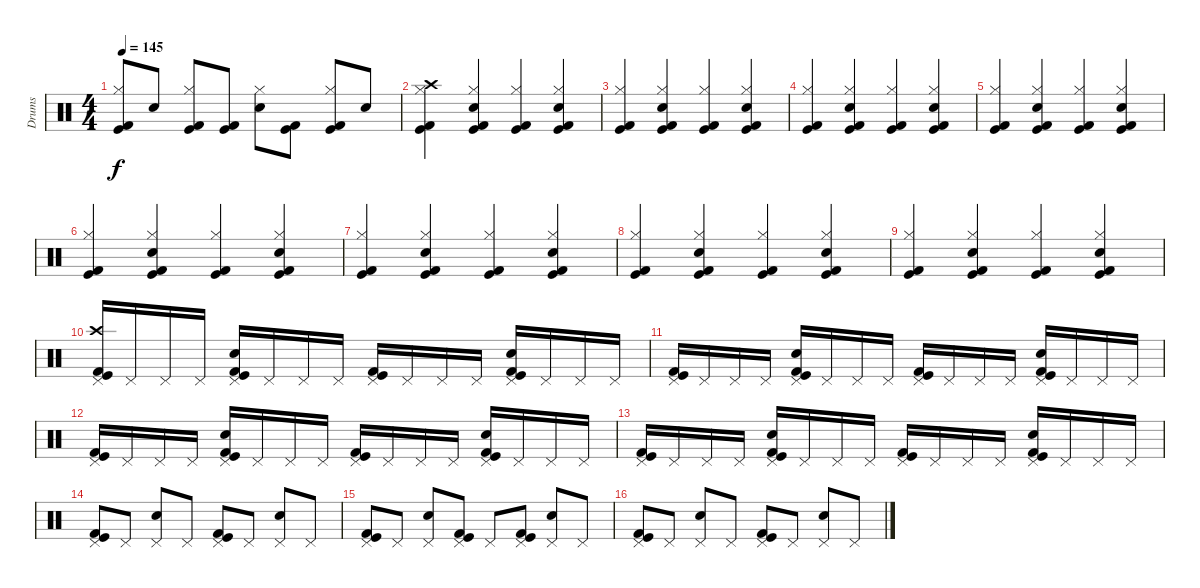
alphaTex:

\track ("Drums" "Drums") {instrument percussion}
\staff {score}
\articulation defaults
\ts (4 4)
\tempo 145
\clef neutral
\ks c
("Kick (hit) 2" "Hi-Hat (closed)" "Kick (hit)").8{dy f} "Electric Snare (hit)".8 ("Kick (hit) 2" "Hi-Hat (closed)" "Kick (hit)").8 ("Kick (hit) 2" "Kick (hit)").8 ("Hi-Hat (closed)" "Electric Snare (hit)").8 ("Kick (hit) 2" "Kick (hit)").8 ("Hi-Hat (closed)" "Kick (hit) 2" "Kick (hit)").8 "Electric Snare (hit)".8 |
("Crash high (hit)" "Hi-Hat (closed)" "Kick (hit) 2" "Kick (hit)").4 ("Hi-Hat (closed)" "Electric Snare (hit)" "Kick (hit) 2" "Kick (hit)").4 ("Hi-Hat (closed)" "Kick (hit) 2" "Kick (hit)").4 ("Electric Snare (hit)" "Hi-Hat (closed)" "Kick (hit) 2" "Kick (hit)").4 |
("Kick (hit) 2" "Hi-Hat (closed)" "Kick (hit)").4 ("Electric Snare (hit)" "Hi-Hat (closed)" "Kick (hit) 2" "Kick (hit)").4 ("Hi-Hat (closed)" "Kick (hit) 2" "Kick (hit)").4 ("Hi-Hat (closed)" "Electric Snare (hit)" "Kick (hit) 2" "Kick (hit)").4 |
("Hi-Hat (closed)" "Kick (hit) 2" "Kick (hit)").4 ("Hi-Hat (closed)" "Electric Snare (hit)" "Kick (hit) 2" "Kick (hit)").4 ("Hi-Hat (closed)" "Kick (hit) 2" "Kick (hit)").4 ("Electric Snare (hit)" "Hi-Hat (closed)" "Kick (hit) 2" "Kick (hit)").4 |
("Kick (hit) 2" "Hi-Hat (closed)" "Kick (hit)").4 ("Electric Snare (hit)" "Hi-Hat (closed)" "Kick (hit) 2" "Kick (hit)").4 ("Hi-Hat (closed)" "Kick (hit) 2" "Kick (hit)").4 ("Hi-Hat (closed)" "Electric Snare (hit)" "Kick (hit) 2" "Kick (hit)").4 |
("Hi-Hat (closed)" "Kick (hit) 2" "Kick (hit)").4 ("Hi-Hat (closed)" "Electric Snare (hit)" "Kick (hit) 2" "Kick (hit)").4 ("Hi-Hat (closed)" "Kick (hit) 2" "Kick (hit)").4 ("Electric Snare (hit)" "Hi-Hat (closed)" "Kick (hit) 2" "Kick (hit)").4 |
("Kick (hit) 2" "Hi-Hat (closed)" "Kick (hit)").4 ("Electric Snare (hit)" "Hi-Hat (closed)" "Kick (hit) 2" "Kick (hit)").4 ("Hi-Hat (closed)" "Kick (hit) 2" "Kick (hit)").4 ("Hi-Hat (closed)" "Electric Snare (hit)" "Kick (hit) 2" "Kick (hit)").4 |
("Hi-Hat (closed)" "Kick (hit) 2" "Kick (hit)").4 ("Hi-Hat (closed)" "Electric Snare (hit)" "Kick (hit) 2" "Kick (hit)").4 ("Hi-Hat (closed)" "Kick (hit) 2" "Kick (hit)").4 ("Electric Snare (hit)" "Hi-Hat (closed)" "Kick (hit) 2" "Kick (hit)").4 |
("Kick (hit) 2" "Hi-Hat (closed)" "Kick (hit)").4 ("Electric Snare (hit)" "Hi-Hat (closed)" "Kick (hit) 2" "Kick (hit)").4 ("Hi-Hat (closed)" "Kick (hit) 2" "Kick (hit)").4 ("Hi-Hat (closed)" "Electric Snare (hit)" "Kick (hit) 2" "Kick (hit)").4 |
("Crash high (hit)" "Kick (hit) 2" "Pedal Hi-Hat (hit)" "Kick (hit)").16 "Pedal Hi-Hat (hit)".16 "Pedal Hi-Hat (hit)".16 "Pedal Hi-Hat (hit)".16 ("Pedal Hi-Hat (hit)" "Electric Snare (hit)" "Kick (hit) 2" "Kick (hit)").16 "Pedal Hi-Hat (hit)".16 "Pedal Hi-Hat (hit)".16 "Pedal Hi-Hat (hit)".16 ("Pedal Hi-Hat (hit)" "Kick (hit) 2" "Kick (hit)").16 "Pedal Hi-Hat (hit)".16 "Pedal Hi-Hat (hit)".16 "Pedal Hi-Hat (hit)".16 ("Electric Snare (hit)" "Pedal Hi-Hat (hit)" "Kick (hit) 2" "Kick (hit)").16 "Pedal Hi-Hat (hit)".16 "Pedal Hi-Hat (hit)".16 "Pedal Hi-Hat (hit)".16 |
("Kick (hit) 2" "Pedal Hi-Hat (hit)" "Kick (hit)").16 "Pedal Hi-Hat (hit)".16 "Pedal Hi-Hat (hit)".16 "Pedal Hi-Hat (hit)".16 ("Pedal Hi-Hat (hit)" "Electric Snare (hit)" "Kick (hit) 2" "Kick (hit)").16 "Pedal Hi-Hat (hit)".16 "Pedal Hi-Hat (hit)".16 "Pedal Hi-Hat (hit)".16 ("Pedal Hi-Hat (hit)" "Kick (hit) 2" "Kick (hit)").16 "Pedal Hi-Hat (hit)".16 "Pedal Hi-Hat (hit)".16 "Pedal Hi-Hat (hit)".16 ("Electric Snare (hit)" "Pedal Hi-Hat (hit)" "Kick (hit) 2" "Kick (hit)").16 "Pedal Hi-Hat (hit)".16 "Pedal Hi-Hat (hit)".16 "Pedal Hi-Hat (hit)".16 |
("Kick (hit) 2" "Pedal Hi-Hat (hit)" "Kick (hit)").16 "Pedal Hi-Hat (hit)".16 "Pedal Hi-Hat (hit)".16 "Pedal Hi-Hat (hit)".16 ("Pedal Hi-Hat (hit)" "Electric Snare (hit)" "Kick (hit) 2" "Kick (hit)").16 "Pedal Hi-Hat (hit)".16 "Pedal Hi-Hat (hit)".16 "Pedal Hi-Hat (hit)".16 ("Pedal Hi-Hat (hit)" "Kick (hit) 2" "Kick (hit)").16 "Pedal Hi-Hat (hit)".16 "Pedal Hi-Hat (hit)".16 "Pedal Hi-Hat (hit)".16 ("Electric Snare (hit)" "Pedal Hi-Hat (hit)" "Kick (hit) 2" "Kick (hit)").16 "Pedal Hi-Hat (hit)".16 "Pedal Hi-Hat (hit)".16 "Pedal Hi-Hat (hit)".16 |
("Kick (hit) 2" "Pedal Hi-Hat (hit)" "Kick (hit)").16 "Pedal Hi-Hat (hit)".16 "Pedal Hi-Hat (hit)".16 "Pedal Hi-Hat (hit)".16 ("Pedal Hi-Hat (hit)" "Electric Snare (hit)" "Kick (hit) 2" "Kick (hit)").16 "Pedal Hi-Hat (hit)".16 "Pedal Hi-Hat (hit)".16 "Pedal Hi-Hat (hit)".16 ("Pedal Hi-Hat (hit)" "Kick (hit) 2" "Kick (hit)").16 "Pedal Hi-Hat (hit)".16 "Pedal Hi-Hat (hit)".16 "Pedal Hi-Hat (hit)".16 ("Electric Snare (hit)" "Pedal Hi-Hat (hit)" "Kick (hit) 2" "Kick (hit)").16 "Pedal Hi-Hat (hit)".16 "Pedal Hi-Hat (hit)".16 "Pedal Hi-Hat (hit)".16 |
("Kick (hit) 2" "Pedal Hi-Hat (hit)" "Kick (hit)").8 "Pedal Hi-Hat (hit)".8 ("Pedal Hi-Hat (hit)" "Electric Snare (hit)").8 "Pedal Hi-Hat (hit)".8 ("Pedal Hi-Hat (hit)" "Kick (hit) 2" "Kick (hit)").8 "Pedal Hi-Hat (hit)".8 ("Pedal Hi-Hat (hit)" "Electric Snare (hit)").8 "Pedal Hi-Hat (hit)".8 |
("Kick (hit) 2" "Pedal Hi-Hat (hit)" "Kick (hit)").8 "Pedal Hi-Hat (hit)".8 ("Pedal Hi-Hat (hit)" "Electric Snare (hit)").8 ("Pedal Hi-Hat (hit)" "Kick (hit) 2" "Kick (hit)").8 "Pedal Hi-Hat (hit)".8 ("Pedal Hi-Hat (hit)" "Kick (hit) 2" "Kick (hit)").8 ("Electric Snare (hit)" "Pedal Hi-Hat (hit)").8 "Pedal Hi-Hat (hit)".8 |
("Kick (hit) 2" "Pedal Hi-Hat (hit)" "Kick (hit)").8 "Pedal Hi-Hat (hit)".8 ("Electric Snare (hit)" "Pedal Hi-Hat (hit)").8 "Pedal Hi-Hat (hit)".8 ("Kick (hit) 2" "Pedal Hi-Hat (hit)" "Kick (hit)").8 "Pedal Hi-Hat (hit)".8 ("Electric Snare (hit)" "Pedal Hi-Hat (hit)").8 "Pedal Hi-Hat (hit)".8
